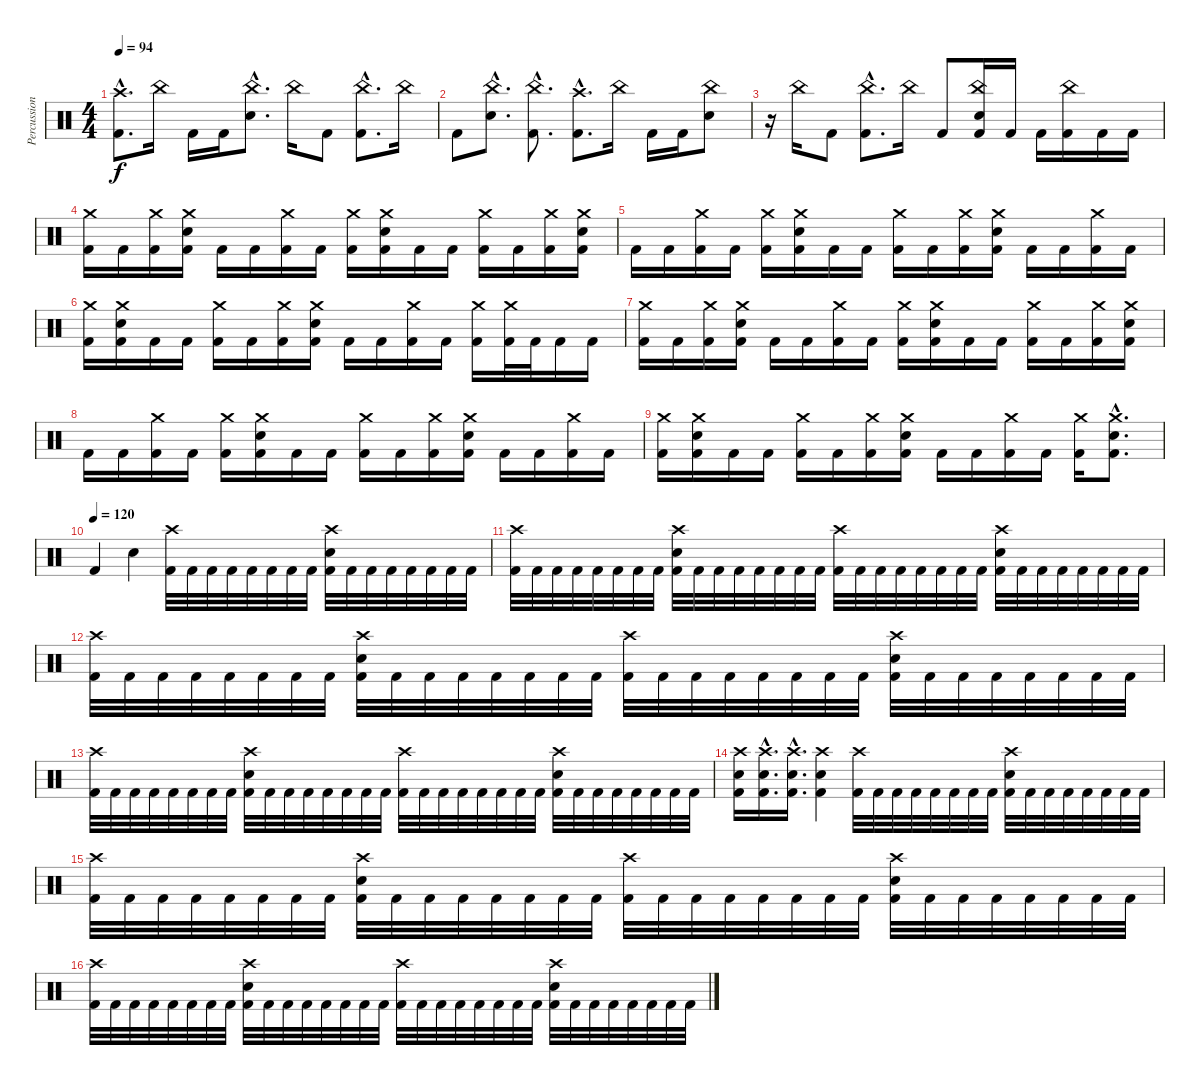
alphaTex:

\track ("Percussion" "Percussion") {instrument percussion}
\staff {score}
\articulation defaults
\ts (4 4)
\tempo 94
\clef neutral
\ks c
("Crash high (hit)"{hac} "Kick (hit) 2"{hac}).8{d dy f} "China (hit)".16 "Kick (hit) 2".16 "Kick (hit) 2".16 ("China (hit)"{hac} "Electric Snare (hit)"{hac}).8{d} "China (hit)".16 "Kick (hit) 2".8 ("China (hit)"{hac} "Kick (hit) 2"{hac}).8{d} "China (hit)".16 |
"Kick (hit) 2".8 ("China (hit)"{hac} "Electric Snare (hit)"{hac}).8{d} ("China (hit)"{hac} "Kick (hit) 2"{hac}).8{d} ("Crash high (hit)"{hac} "Kick (hit) 2"{hac}).8{d} "China (hit)".16 "Kick (hit) 2".16 "Kick (hit) 2".16 ("China (hit)" "Electric Snare (hit)").8 |
r.16 "China (hit)".16 "Kick (hit) 2".8 ("China (hit)"{hac} "Kick (hit) 2"{hac}).8{d} "China (hit)".16 "Kick (hit) 2".8 ("China (hit)" "Electric Snare (hit)" "Kick (hit) 2").16 "Kick (hit) 2".16 "Kick (hit) 2".16 ("China (hit)" "Kick (hit) 2").16 "Kick (hit) 2".16 "Kick (hit) 2".16 |
("Crash medium (hit)" "Kick (hit) 2").16 "Kick (hit) 2".16 ("Crash medium (hit)" "Kick (hit) 2").16 ("Crash medium (hit)" "Electric Snare (hit)" "Kick (hit) 2").16 "Kick (hit) 2".16 "Kick (hit) 2".16 ("Crash medium (hit)" "Kick (hit) 2").16 "Kick (hit) 2".16 ("Crash medium (hit)" "Kick (hit) 2").16 ("Crash medium (hit)" "Electric Snare (hit)" "Kick (hit) 2").16 "Kick (hit) 2".16 "Kick (hit) 2".16 ("Crash medium (hit)" "Kick (hit) 2").16 "Kick (hit) 2".16 ("Crash medium (hit)" "Kick (hit) 2").16 ("Crash medium (hit)" "Electric Snare (hit)" "Kick (hit) 2").16 |
"Kick (hit) 2".16 "Kick (hit) 2".16 ("Crash medium (hit)" "Kick (hit) 2").16 "Kick (hit) 2".16 ("Crash medium (hit)" "Kick (hit) 2").16 ("Crash medium (hit)" "Electric Snare (hit)" "Kick (hit) 2").16 "Kick (hit) 2".16 "Kick (hit) 2".16 ("Crash medium (hit)" "Kick (hit) 2").16 "Kick (hit) 2".16 ("Crash medium (hit)" "Kick (hit) 2").16 ("Crash medium (hit)" "Electric Snare (hit)" "Kick (hit) 2").16 "Kick (hit) 2".16 "Kick (hit) 2".16 ("Crash medium (hit)" "Kick (hit) 2").16 "Kick (hit) 2".16 |
("Crash medium (hit)" "Kick (hit) 2").16 ("Crash medium (hit)" "Electric Snare (hit)" "Kick (hit) 2").16 "Kick (hit) 2".16 "Kick (hit) 2".16 ("Crash medium (hit)" "Kick (hit) 2").16 "Kick (hit) 2".16 ("Crash medium (hit)" "Kick (hit) 2").16 ("Crash medium (hit)" "Electric Snare (hit)" "Kick (hit) 2").16 "Kick (hit) 2".16 "Kick (hit) 2".16 ("Crash medium (hit)" "Kick (hit) 2").16 "Kick (hit) 2".16 ("Crash medium (hit)" "Kick (hit) 2").16 ("Crash medium (hit)" "Kick (hit) 2").32 "Kick (hit) 2".32 "Kick (hit) 2".16 "Kick (hit) 2".16 |
("Crash medium (hit)" "Kick (hit) 2").16 "Kick (hit) 2".16 ("Crash medium (hit)" "Kick (hit) 2").16 ("Crash medium (hit)" "Electric Snare (hit)" "Kick (hit) 2").16 "Kick (hit) 2".16 "Kick (hit) 2".16 ("Crash medium (hit)" "Kick (hit) 2").16 "Kick (hit) 2".16 ("Crash medium (hit)" "Kick (hit) 2").16 ("Crash medium (hit)" "Electric Snare (hit)" "Kick (hit) 2").16 "Kick (hit) 2".16 "Kick (hit) 2".16 ("Crash medium (hit)" "Kick (hit) 2").16 "Kick (hit) 2".16 ("Crash medium (hit)" "Kick (hit) 2").16 ("Crash medium (hit)" "Electric Snare (hit)" "Kick (hit) 2").16 |
"Kick (hit) 2".16 "Kick (hit) 2".16 ("Crash medium (hit)" "Kick (hit) 2").16 "Kick (hit) 2".16 ("Crash medium (hit)" "Kick (hit) 2").16 ("Crash medium (hit)" "Electric Snare (hit)" "Kick (hit) 2").16 "Kick (hit) 2".16 "Kick (hit) 2".16 ("Crash medium (hit)" "Kick (hit) 2").16 "Kick (hit) 2".16 ("Crash medium (hit)" "Kick (hit) 2").16 ("Crash medium (hit)" "Electric Snare (hit)" "Kick (hit) 2").16 "Kick (hit) 2".16 "Kick (hit) 2".16 ("Crash medium (hit)" "Kick (hit) 2").16 "Kick (hit) 2".16 |
("Crash medium (hit)" "Kick (hit) 2").16 ("Crash medium (hit)" "Electric Snare (hit)" "Kick (hit) 2").16 "Kick (hit) 2".16 "Kick (hit) 2".16 ("Crash medium (hit)" "Kick (hit) 2").16 "Kick (hit) 2".16 ("Crash medium (hit)" "Kick (hit) 2").16 ("Crash medium (hit)" "Electric Snare (hit)" "Kick (hit) 2").16 "Kick (hit) 2".16 "Kick (hit) 2".16 ("Crash medium (hit)" "Kick (hit) 2").16 "Kick (hit) 2".16 ("Crash medium (hit)" "Kick (hit) 2").16 ("Crash medium (hit)"{hac} "Electric Snare (hit)"{hac} "Kick (hit) 2"{hac}).8{d} |
\tempo (120)
"Kick (hit) 2".4 "Electric Snare (hit)".4 ("Crash high (hit)" "Kick (hit) 2").32 "Kick (hit) 2".32 "Kick (hit) 2".32 "Kick (hit) 2".32 "Kick (hit) 2".32 "Kick (hit) 2".32 "Kick (hit) 2".32 "Kick (hit) 2".32 ("Crash high (hit)" "Electric Snare (hit)" "Kick (hit) 2").32 "Kick (hit) 2".32 "Kick (hit) 2".32 "Kick (hit) 2".32 "Kick (hit) 2".32 "Kick (hit) 2".32 "Kick (hit) 2".32 "Kick (hit) 2".32 |
("Crash high (hit)" "Kick (hit) 2").32 "Kick (hit) 2".32 "Kick (hit) 2".32 "Kick (hit) 2".32 "Kick (hit) 2".32 "Kick (hit) 2".32 "Kick (hit) 2".32 "Kick (hit) 2".32 ("Crash high (hit)" "Electric Snare (hit)" "Kick (hit) 2").32 "Kick (hit) 2".32 "Kick (hit) 2".32 "Kick (hit) 2".32 "Kick (hit) 2".32 "Kick (hit) 2".32 "Kick (hit) 2".32 "Kick (hit) 2".32 ("Crash high (hit)" "Kick (hit) 2").32 "Kick (hit) 2".32 "Kick (hit) 2".32 "Kick (hit) 2".32 "Kick (hit) 2".32 "Kick (hit) 2".32 "Kick (hit) 2".32 "Kick (hit) 2".32 ("Crash high (hit)" "Electric Snare (hit)" "Kick (hit) 2").32 "Kick (hit) 2".32 "Kick (hit) 2".32 "Kick (hit) 2".32 "Kick (hit) 2".32 "Kick (hit) 2".32 "Kick (hit) 2".32 "Kick (hit) 2".32 |
("Crash high (hit)" "Kick (hit) 2").32 "Kick (hit) 2".32 "Kick (hit) 2".32 "Kick (hit) 2".32 "Kick (hit) 2".32 "Kick (hit) 2".32 "Kick (hit) 2".32 "Kick (hit) 2".32 ("Crash high (hit)" "Electric Snare (hit)" "Kick (hit) 2").32 "Kick (hit) 2".32 "Kick (hit) 2".32 "Kick (hit) 2".32 "Kick (hit) 2".32 "Kick (hit) 2".32 "Kick (hit) 2".32 "Kick (hit) 2".32 ("Crash high (hit)" "Kick (hit) 2").32 "Kick (hit) 2".32 "Kick (hit) 2".32 "Kick (hit) 2".32 "Kick (hit) 2".32 "Kick (hit) 2".32 "Kick (hit) 2".32 "Kick (hit) 2".32 ("Crash high (hit)" "Electric Snare (hit)" "Kick (hit) 2").32 "Kick (hit) 2".32 "Kick (hit) 2".32 "Kick (hit) 2".32 "Kick (hit) 2".32 "Kick (hit) 2".32 "Kick (hit) 2".32 "Kick (hit) 2".32 |
("Crash high (hit)" "Kick (hit) 2").32 "Kick (hit) 2".32 "Kick (hit) 2".32 "Kick (hit) 2".32 "Kick (hit) 2".32 "Kick (hit) 2".32 "Kick (hit) 2".32 "Kick (hit) 2".32 ("Crash high (hit)" "Electric Snare (hit)" "Kick (hit) 2").32 "Kick (hit) 2".32 "Kick (hit) 2".32 "Kick (hit) 2".32 "Kick (hit) 2".32 "Kick (hit) 2".32 "Kick (hit) 2".32 "Kick (hit) 2".32 ("Crash high (hit)" "Kick (hit) 2").32 "Kick (hit) 2".32 "Kick (hit) 2".32 "Kick (hit) 2".32 "Kick (hit) 2".32 "Kick (hit) 2".32 "Kick (hit) 2".32 "Kick (hit) 2".32 ("Crash high (hit)" "Electric Snare (hit)" "Kick (hit) 2").32 "Kick (hit) 2".32 "Kick (hit) 2".32 "Kick (hit) 2".32 "Kick (hit) 2".32 "Kick (hit) 2".32 "Kick (hit) 2".32 "Kick (hit) 2".32 |
("Crash high (hit)" "Electric Snare (hit)" "Kick (hit) 2").16 ("Crash high (hit)"{hac} "Electric Snare (hit)"{hac} "Kick (hit) 2"{hac}).16{d} ("Crash high (hit)"{hac} "Electric Snare (hit)"{hac} "Kick (hit) 2"{hac}).16{d} ("Crash high (hit)" "Electric Snare (hit)" "Kick (hit) 2").4 ("Crash high (hit)" "Kick (hit) 2").32 "Kick (hit) 2".32 "Kick (hit) 2".32 "Kick (hit) 2".32 "Kick (hit) 2".32 "Kick (hit) 2".32 "Kick (hit) 2".32 "Kick (hit) 2".32 ("Crash high (hit)" "Electric Snare (hit)" "Kick (hit) 2").32 "Kick (hit) 2".32 "Kick (hit) 2".32 "Kick (hit) 2".32 "Kick (hit) 2".32 "Kick (hit) 2".32 "Kick (hit) 2".32 "Kick (hit) 2".32 |
("Crash high (hit)" "Kick (hit) 2").32 "Kick (hit) 2".32 "Kick (hit) 2".32 "Kick (hit) 2".32 "Kick (hit) 2".32 "Kick (hit) 2".32 "Kick (hit) 2".32 "Kick (hit) 2".32 ("Crash high (hit)" "Electric Snare (hit)" "Kick (hit) 2").32 "Kick (hit) 2".32 "Kick (hit) 2".32 "Kick (hit) 2".32 "Kick (hit) 2".32 "Kick (hit) 2".32 "Kick (hit) 2".32 "Kick (hit) 2".32 ("Crash high (hit)" "Kick (hit) 2").32 "Kick (hit) 2".32 "Kick (hit) 2".32 "Kick (hit) 2".32 "Kick (hit) 2".32 "Kick (hit) 2".32 "Kick (hit) 2".32 "Kick (hit) 2".32 ("Crash high (hit)" "Electric Snare (hit)" "Kick (hit) 2").32 "Kick (hit) 2".32 "Kick (hit) 2".32 "Kick (hit) 2".32 "Kick (hit) 2".32 "Kick (hit) 2".32 "Kick (hit) 2".32 "Kick (hit) 2".32 |
("Crash high (hit)" "Kick (hit) 2").32 "Kick (hit) 2".32 "Kick (hit) 2".32 "Kick (hit) 2".32 "Kick (hit) 2".32 "Kick (hit) 2".32 "Kick (hit) 2".32 "Kick (hit) 2".32 ("Crash high (hit)" "Electric Snare (hit)" "Kick (hit) 2").32 "Kick (hit) 2".32 "Kick (hit) 2".32 "Kick (hit) 2".32 "Kick (hit) 2".32 "Kick (hit) 2".32 "Kick (hit) 2".32 "Kick (hit) 2".32 ("Crash high (hit)" "Kick (hit) 2").32 "Kick (hit) 2".32 "Kick (hit) 2".32 "Kick (hit) 2".32 "Kick (hit) 2".32 "Kick (hit) 2".32 "Kick (hit) 2".32 "Kick (hit) 2".32 ("Crash high (hit)" "Electric Snare (hit)" "Kick (hit) 2").32 "Kick (hit) 2".32 "Kick (hit) 2".32 "Kick (hit) 2".32 "Kick (hit) 2".32 "Kick (hit) 2".32 "Kick (hit) 2".32 "Kick (hit) 2".32
